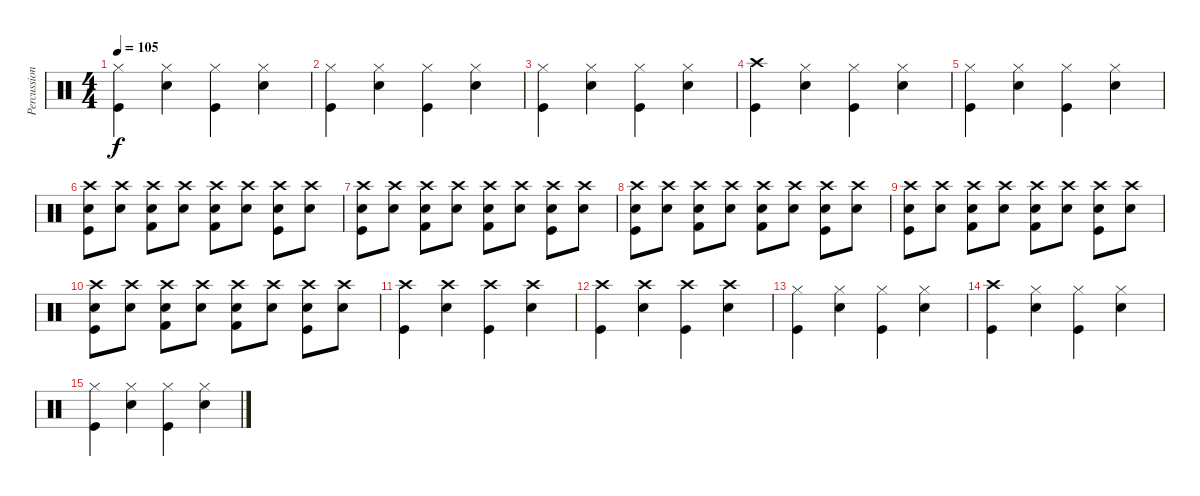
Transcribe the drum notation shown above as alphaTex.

\track ("Percussion" "Percussion") {instrument percussion}
\staff {score}
\articulation defaults
\ts (4 4)
\tempo 105
\clef neutral
\ks c
("Hi-Hat (closed)" "Kick (hit)").4{dy f} ("Hi-Hat (closed)" "Snare (hit) 2").4 ("Hi-Hat (closed)" "Kick (hit)").4 ("Hi-Hat (closed)" "Snare (hit) 2").4 |
("Hi-Hat (closed)" "Kick (hit)").4 ("Hi-Hat (closed)" "Snare (hit) 2").4 ("Hi-Hat (closed)" "Kick (hit)").4 ("Hi-Hat (closed)" "Snare (hit) 2").4 |
("Hi-Hat (closed)" "Kick (hit)").4 ("Hi-Hat (closed)" "Snare (hit) 2").4 ("Hi-Hat (closed)" "Kick (hit)").4 ("Hi-Hat (closed)" "Snare (hit) 2").4 |
("Crash high (hit)" "Kick (hit)").4 ("Hi-Hat (closed)" "Snare (hit) 2").4 ("Hi-Hat (closed)" "Kick (hit)").4 ("Hi-Hat (closed)" "Snare (hit) 2").4 |
("Hi-Hat (closed)" "Kick (hit)").4 ("Hi-Hat (closed)" "Snare (hit) 2").4 ("Hi-Hat (closed)" "Kick (hit)").4 ("Hi-Hat (closed)" "Snare (hit) 2").4 |
("Crash high (hit)" "Snare (hit) 2" "Kick (hit)").8 ("Crash high (hit)" "Snare (hit) 2").8 ("Crash high (hit)" "Snare (hit) 2" "Kick (hit) 2").8 ("Crash high (hit)" "Snare (hit) 2").8 ("Crash high (hit)" "Snare (hit) 2" "Kick (hit) 2").8 ("Crash high (hit)" "Snare (hit) 2").8 ("Crash high (hit)" "Snare (hit) 2" "Kick (hit)").8 ("Crash high (hit)" "Snare (hit) 2").8 |
("Crash high (hit)" "Snare (hit) 2" "Kick (hit)").8 ("Crash high (hit)" "Snare (hit) 2").8 ("Crash high (hit)" "Snare (hit) 2" "Kick (hit) 2").8 ("Crash high (hit)" "Snare (hit) 2").8 ("Crash high (hit)" "Snare (hit) 2" "Kick (hit) 2").8 ("Crash high (hit)" "Snare (hit) 2").8 ("Crash high (hit)" "Snare (hit) 2" "Kick (hit)").8 ("Crash high (hit)" "Snare (hit) 2").8 |
("Crash high (hit)" "Snare (hit) 2" "Kick (hit)").8 ("Crash high (hit)" "Snare (hit) 2").8 ("Crash high (hit)" "Snare (hit) 2" "Kick (hit) 2").8 ("Crash high (hit)" "Snare (hit) 2").8 ("Crash high (hit)" "Snare (hit) 2" "Kick (hit) 2").8 ("Crash high (hit)" "Snare (hit) 2").8 ("Crash high (hit)" "Snare (hit) 2" "Kick (hit)").8 ("Crash high (hit)" "Snare (hit) 2").8 |
("Crash high (hit)" "Snare (hit) 2" "Kick (hit)").8 ("Crash high (hit)" "Snare (hit) 2").8 ("Crash high (hit)" "Snare (hit) 2" "Kick (hit) 2").8 ("Crash high (hit)" "Snare (hit) 2").8 ("Crash high (hit)" "Snare (hit) 2" "Kick (hit) 2").8 ("Crash high (hit)" "Snare (hit) 2").8 ("Crash high (hit)" "Snare (hit) 2" "Kick (hit)").8 ("Crash high (hit)" "Snare (hit) 2").8 |
("Crash high (hit)" "Snare (hit) 2" "Kick (hit)").8 ("Crash high (hit)" "Snare (hit) 2").8 ("Crash high (hit)" "Snare (hit) 2" "Kick (hit) 2").8 ("Crash high (hit)" "Snare (hit) 2").8 ("Crash high (hit)" "Snare (hit) 2" "Kick (hit) 2").8 ("Crash high (hit)" "Snare (hit) 2").8 ("Crash high (hit)" "Snare (hit) 2" "Kick (hit)").8 ("Crash high (hit)" "Snare (hit) 2").8 |
("Crash high (hit)" "Kick (hit)").4 ("Crash high (hit)" "Snare (hit) 2").4 ("Crash high (hit)" "Kick (hit)").4 ("Crash high (hit)" "Snare (hit) 2").4 |
("Crash high (hit)" "Kick (hit)").4 ("Crash high (hit)" "Snare (hit) 2").4 ("Crash high (hit)" "Kick (hit)").4 ("Crash high (hit)" "Snare (hit) 2").4 |
("Hi-Hat (closed)" "Kick (hit)").4 ("Hi-Hat (closed)" "Snare (hit) 2").4 ("Hi-Hat (closed)" "Kick (hit)").4 ("Hi-Hat (closed)" "Snare (hit) 2").4 |
("Crash high (hit)" "Kick (hit)").4 ("Hi-Hat (closed)" "Snare (hit) 2").4 ("Hi-Hat (closed)" "Kick (hit)").4 ("Hi-Hat (closed)" "Snare (hit) 2").4 |
("Hi-Hat (closed)" "Kick (hit)").4 ("Hi-Hat (closed)" "Snare (hit) 2").4 ("Hi-Hat (closed)" "Kick (hit)").4 ("Hi-Hat (closed)" "Snare (hit) 2").4
